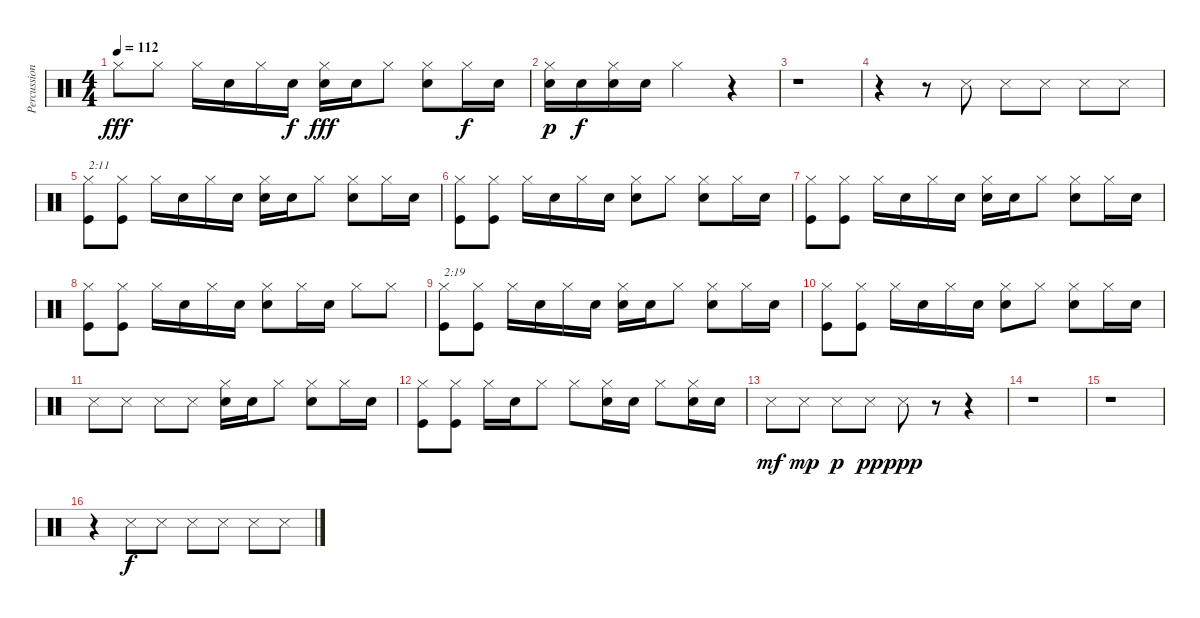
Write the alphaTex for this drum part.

\track ("Percussion 2" "Percussion") {instrument percussion}
\staff {score}
\articulation defaults
\ts (4 4)
\tempo 112
\clef neutral
\ks c "Hi-Hat (closed)".8{dy fff} "Hi-Hat (closed)".8 "Hi-Hat (closed)".16 "Snare (hit) 2".16 "Hi-Hat (closed)".16 "Snare (hit) 2".16{dy f}
("Hi-Hat (closed)" "Snare (hit) 2").16{dy fff} "Snare (hit) 2".16 "Hi-Hat (closed)".8 ("Hi-Hat (closed)" "Snare (hit) 2").8 "Hi-Hat (closed)".16{dy f} "Snare (hit) 2".16 |
("Hi-Hat (closed)" "Snare (hit) 2").16{dy p} "Snare (hit) 2".16{dy f} ("Hi-Hat (closed)" "Snare (hit) 2").16 "Snare (hit) 2".16 "Hi-Hat (closed)".2 r.4 |
r.1 |
r.4 r.8 "Snare (side stick) 3".8 "Snare (side stick) 3".8 "Snare (side stick) 3".8 "Snare (side stick) 3".8 "Snare (side stick) 3".8 |
("Hi-Hat (closed)" "Kick (hit)").8{txt "2:11"} ("Hi-Hat (closed)" "Kick (hit)").8 "Hi-Hat (closed)".16 "Snare (hit) 2".16 "Hi-Hat (closed)".16 "Snare (hit) 2".16 ("Hi-Hat (closed)" "Snare (hit) 2").16 "Snare (hit) 2".16 "Hi-Hat (closed)".8 ("Hi-Hat (closed)" "Snare (hit) 2").8 "Hi-Hat (closed)".16 "Snare (hit) 2".16 |
("Hi-Hat (closed)" "Kick (hit)").8 ("Hi-Hat (closed)" "Kick (hit)").8 "Hi-Hat (closed)".16 "Snare (hit) 2".16 "Hi-Hat (closed)".16 "Snare (hit) 2".16 ("Hi-Hat (closed)" "Snare (hit) 2").8 "Hi-Hat (closed)".8 ("Hi-Hat (closed)" "Snare (hit) 2").8 "Hi-Hat (closed)".16 "Snare (hit) 2".16 |
("Hi-Hat (closed)" "Kick (hit)").8 ("Hi-Hat (closed)" "Kick (hit)").8 "Hi-Hat (closed)".16 "Snare (hit) 2".16 "Hi-Hat (closed)".16 "Snare (hit) 2".16 ("Hi-Hat (closed)" "Snare (hit) 2").16 "Snare (hit) 2".16 "Hi-Hat (closed)".8 ("Hi-Hat (closed)" "Snare (hit) 2").8 "Hi-Hat (closed)".16 "Snare (hit) 2".16 |
("Hi-Hat (closed)" "Kick (hit)").8 ("Hi-Hat (closed)" "Kick (hit)").8 "Hi-Hat (closed)".16 "Snare (hit) 2".16 "Hi-Hat (closed)".16 "Snare (hit) 2".16 ("Hi-Hat (closed)" "Snare (hit) 2").8 "Hi-Hat (closed)".16 "Snare (hit) 2".16 "Hi-Hat (closed)".8 "Hi-Hat (closed)".8 |
("Hi-Hat (closed)" "Kick (hit)").8{txt "2:19"} ("Hi-Hat (closed)" "Kick (hit)").8 "Hi-Hat (closed)".16 "Snare (hit) 2".16 "Hi-Hat (closed)".16 "Snare (hit) 2".16 ("Hi-Hat (closed)" "Snare (hit) 2").16 "Snare (hit) 2".16 "Hi-Hat (closed)".8 ("Hi-Hat (closed)" "Snare (hit) 2").8 "Hi-Hat (closed)".16 "Snare (hit) 2".16 |
("Hi-Hat (closed)" "Kick (hit)").8 ("Hi-Hat (closed)" "Kick (hit)").8 "Hi-Hat (closed)".16 "Snare (hit) 2".16 "Hi-Hat (closed)".16 "Snare (hit) 2".16 ("Hi-Hat (closed)" "Snare (hit) 2").8 "Hi-Hat (closed)".8 ("Hi-Hat (closed)" "Snare (hit) 2").8 "Hi-Hat (closed)".16 "Snare (hit) 2".16 |
"Snare (side stick) 3".8 "Snare (side stick) 3".8 "Snare (side stick) 3".8 "Snare (side stick) 3".8 ("Hi-Hat (closed)" "Snare (hit) 2").16 "Snare (hit) 2".16 "Hi-Hat (closed)".8 ("Hi-Hat (closed)" "Snare (hit) 2").8 "Hi-Hat (closed)".16 "Snare (hit) 2".16 |
("Hi-Hat (closed)" "Kick (hit)").8 ("Hi-Hat (closed)" "Kick (hit)").8 "Hi-Hat (closed)".16 "Snare (hit) 2".16 "Hi-Hat (closed)".8 "Hi-Hat (closed)".8 ("Hi-Hat (closed)" "Snare (hit) 2").16 "Snare (hit) 2".16 "Hi-Hat (closed)".8 ("Hi-Hat (closed)" "Snare (hit) 2").16 "Snare (hit) 2".16 |
"Snare (side stick) 3".8{dy mf} "Snare (side stick) 3".8{dy mp} "Snare (side stick) 3".8{dy p} "Snare (side stick) 3".8{dy pp} "Snare (side stick) 3".8{dy ppp} r.8 r.4 |
r.1 |
r.1 |
r.4 "Snare (side stick) 3".8{dy f} "Snare (side stick) 3".8 "Snare (side stick) 3".8 "Snare (side stick) 3".8 "Snare (side stick) 3".8 "Snare (side stick) 3".8
